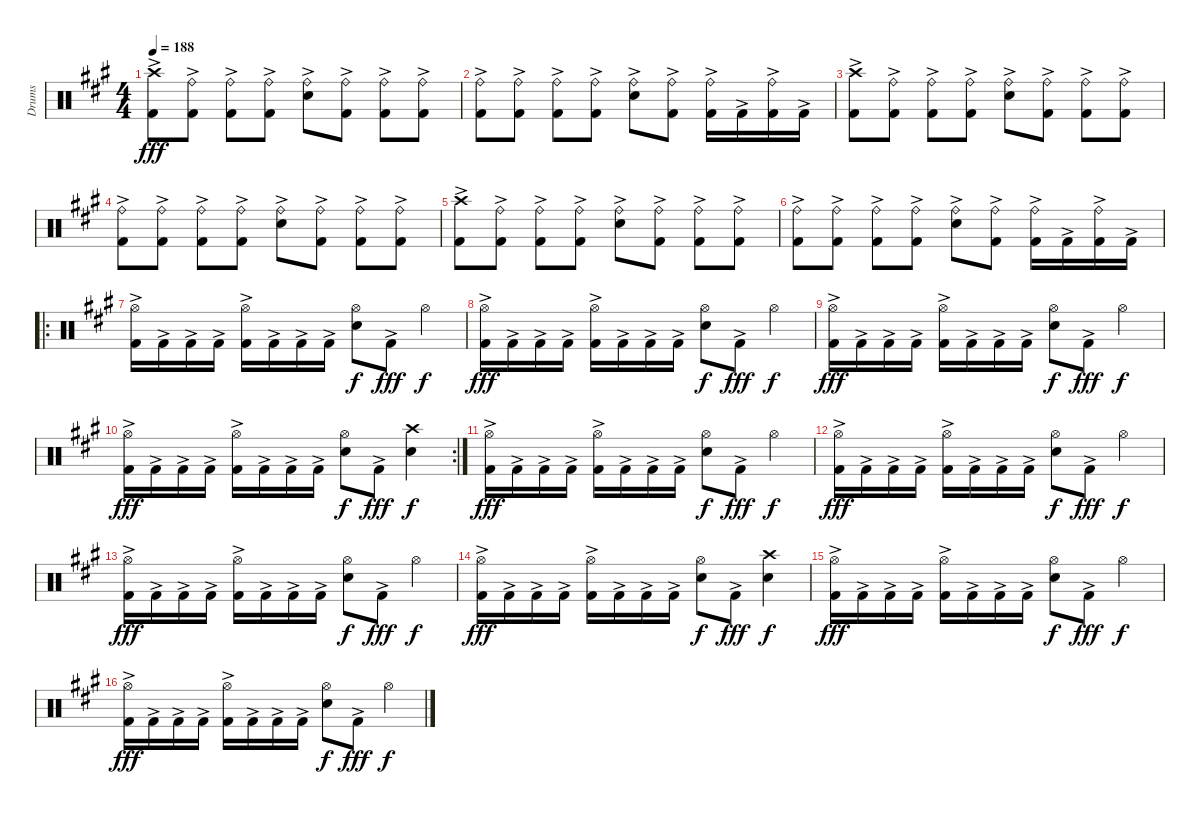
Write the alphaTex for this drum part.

\track ("Drums" "Drums") {instrument percussion}
\staff {score}
\articulation defaults
\ts (4 4)
\tempo 188
\clef neutral
\ks f#minor
("Crash high (hit)" "Kick (hit) 2"{ac}).8{dy fff} ("Ride (bell)"{ac} "Kick (hit) 2"{ac}).8 ("Ride (bell)"{ac} "Kick (hit) 2"{ac}).8 ("Ride (bell)"{ac} "Kick (hit) 2"{ac}).8 ("Ride (bell)"{ac} "Snare (hit) 2").8 ("Ride (bell)"{ac} "Kick (hit) 2"{ac}).8 ("Ride (bell)"{ac} "Kick (hit) 2"{ac}).8 ("Ride (bell)"{ac} "Kick (hit) 2"{ac}).8 |
("Ride (bell)"{ac} "Kick (hit) 2"{ac}).8 ("Ride (bell)"{ac} "Kick (hit) 2"{ac}).8 ("Ride (bell)"{ac} "Kick (hit) 2"{ac}).8 ("Ride (bell)"{ac} "Kick (hit) 2"{ac}).8 ("Ride (bell)"{ac} "Snare (hit) 2").8 ("Ride (bell)"{ac} "Kick (hit) 2"{ac}).8 ("Ride (bell)"{ac} "Kick (hit) 2"{ac}).16 "Kick (hit) 2"{ac}.16 ("Ride (bell)"{ac} "Kick (hit) 2"{ac}).16 "Kick (hit) 2"{ac}.16 |
("Crash high (hit)" "Kick (hit) 2"{ac}).8 ("Ride (bell)"{ac} "Kick (hit) 2"{ac}).8 ("Ride (bell)"{ac} "Kick (hit) 2"{ac}).8 ("Ride (bell)"{ac} "Kick (hit) 2"{ac}).8 ("Ride (bell)"{ac} "Snare (hit) 2").8 ("Ride (bell)"{ac} "Kick (hit) 2"{ac}).8 ("Ride (bell)"{ac} "Kick (hit) 2"{ac}).8 ("Ride (bell)"{ac} "Kick (hit) 2"{ac}).8 |
("Ride (bell)"{ac} "Kick (hit) 2"{ac}).8 ("Ride (bell)"{ac} "Kick (hit) 2"{ac}).8 ("Ride (bell)"{ac} "Kick (hit) 2"{ac}).8 ("Ride (bell)"{ac} "Kick (hit) 2"{ac}).8 ("Ride (bell)"{ac} "Snare (hit) 2").8 ("Ride (bell)"{ac} "Kick (hit) 2"{ac}).8 ("Ride (bell)"{ac} "Kick (hit) 2"{ac}).8 ("Ride (bell)"{ac} "Kick (hit) 2"{ac}).8 |
("Crash high (hit)" "Kick (hit) 2"{ac}).8 ("Ride (bell)"{ac} "Kick (hit) 2"{ac}).8 ("Ride (bell)"{ac} "Kick (hit) 2"{ac}).8 ("Ride (bell)"{ac} "Kick (hit) 2"{ac}).8 ("Ride (bell)"{ac} "Snare (hit) 2").8 ("Ride (bell)"{ac} "Kick (hit) 2"{ac}).8 ("Ride (bell)"{ac} "Kick (hit) 2"{ac}).8 ("Ride (bell)"{ac} "Kick (hit) 2"{ac}).8 |
("Ride (bell)"{ac} "Kick (hit) 2"{ac}).8 ("Ride (bell)"{ac} "Kick (hit) 2"{ac}).8 ("Ride (bell)"{ac} "Kick (hit) 2"{ac}).8 ("Ride (bell)"{ac} "Kick (hit) 2"{ac}).8 ("Ride (bell)"{ac} "Snare (hit) 2").8 ("Ride (bell)"{ac} "Kick (hit) 2"{ac}).8 ("Ride (bell)"{ac} "Kick (hit) 2"{ac}).16 "Kick (hit) 2"{ac}.16 ("Ride (bell)"{ac} "Kick (hit) 2"{ac}).16 "Kick (hit) 2"{ac}.16 |
\ro
("Hi-Hat (open)" "Kick (hit) 2"{ac}).16{volume 14} "Kick (hit) 2"{ac}.16 "Kick (hit) 2"{ac}.16 "Kick (hit) 2"{ac}.16 ("Hi-Hat (open)" "Kick (hit) 2"{ac}).16 "Kick (hit) 2"{ac}.16 "Kick (hit) 2"{ac}.16 "Kick (hit) 2"{ac}.16 ("Hi-Hat (open)" "Snare (hit) 2").8{dy f} "Kick (hit) 2"{ac}.8{dy fff} "Hi-Hat (open)".4{dy f} |
("Hi-Hat (open)" "Kick (hit) 2"{ac}).16{dy fff} "Kick (hit) 2"{ac}.16 "Kick (hit) 2"{ac}.16 "Kick (hit) 2"{ac}.16 ("Hi-Hat (open)" "Kick (hit) 2"{ac}).16 "Kick (hit) 2"{ac}.16 "Kick (hit) 2"{ac}.16 "Kick (hit) 2"{ac}.16 ("Hi-Hat (open)" "Snare (hit) 2").8{dy f} "Kick (hit) 2"{ac}.8{dy fff} "Hi-Hat (open)".4{dy f} |
("Hi-Hat (open)" "Kick (hit) 2"{ac}).16{dy fff} "Kick (hit) 2"{ac}.16 "Kick (hit) 2"{ac}.16 "Kick (hit) 2"{ac}.16 ("Hi-Hat (open)" "Kick (hit) 2"{ac}).16 "Kick (hit) 2"{ac}.16 "Kick (hit) 2"{ac}.16 "Kick (hit) 2"{ac}.16 ("Hi-Hat (open)" "Snare (hit) 2").8{dy f} "Kick (hit) 2"{ac}.8{dy fff} "Hi-Hat (open)".4{dy f} |
\rc 2
("Hi-Hat (open)" "Kick (hit) 2"{ac}).16{dy fff} "Kick (hit) 2"{ac}.16 "Kick (hit) 2"{ac}.16 "Kick (hit) 2"{ac}.16 ("Hi-Hat (open)" "Kick (hit) 2"{ac}).16 "Kick (hit) 2"{ac}.16 "Kick (hit) 2"{ac}.16 "Kick (hit) 2"{ac}.16 ("Hi-Hat (open)" "Snare (hit) 2").8{dy f} "Kick (hit) 2"{ac}.8{dy fff} ("Crash high (hit)" "Snare (hit) 2").4{dy f} |
("Hi-Hat (open)" "Kick (hit) 2"{ac}).16{dy fff} "Kick (hit) 2"{ac}.16 "Kick (hit) 2"{ac}.16 "Kick (hit) 2"{ac}.16 ("Hi-Hat (open)" "Kick (hit) 2"{ac}).16 "Kick (hit) 2"{ac}.16 "Kick (hit) 2"{ac}.16 "Kick (hit) 2"{ac}.16 ("Hi-Hat (open)" "Snare (hit) 2").8{dy f} "Kick (hit) 2"{ac}.8{dy fff} "Hi-Hat (open)".4{dy f} |
("Hi-Hat (open)" "Kick (hit) 2"{ac}).16{dy fff} "Kick (hit) 2"{ac}.16 "Kick (hit) 2"{ac}.16 "Kick (hit) 2"{ac}.16 ("Hi-Hat (open)" "Kick (hit) 2"{ac}).16 "Kick (hit) 2"{ac}.16 "Kick (hit) 2"{ac}.16 "Kick (hit) 2"{ac}.16 ("Hi-Hat (open)" "Snare (hit) 2").8{dy f} "Kick (hit) 2"{ac}.8{dy fff} "Hi-Hat (open)".4{dy f} |
("Hi-Hat (open)" "Kick (hit) 2"{ac}).16{dy fff} "Kick (hit) 2"{ac}.16 "Kick (hit) 2"{ac}.16 "Kick (hit) 2"{ac}.16 ("Hi-Hat (open)" "Kick (hit) 2"{ac}).16 "Kick (hit) 2"{ac}.16 "Kick (hit) 2"{ac}.16 "Kick (hit) 2"{ac}.16 ("Hi-Hat (open)" "Snare (hit) 2").8{dy f} "Kick (hit) 2"{ac}.8{dy fff} "Hi-Hat (open)".4{dy f} |
("Hi-Hat (open)" "Kick (hit) 2"{ac}).16{dy fff} "Kick (hit) 2"{ac}.16 "Kick (hit) 2"{ac}.16 "Kick (hit) 2"{ac}.16 ("Hi-Hat (open)" "Kick (hit) 2"{ac}).16 "Kick (hit) 2"{ac}.16 "Kick (hit) 2"{ac}.16 "Kick (hit) 2"{ac}.16 ("Hi-Hat (open)" "Snare (hit) 2").8{dy f} "Kick (hit) 2"{ac}.8{dy fff} ("Crash high (hit)" "Snare (hit) 2").4{dy f} |
("Hi-Hat (open)" "Kick (hit) 2"{ac}).16{dy fff} "Kick (hit) 2"{ac}.16 "Kick (hit) 2"{ac}.16 "Kick (hit) 2"{ac}.16 ("Hi-Hat (open)" "Kick (hit) 2"{ac}).16 "Kick (hit) 2"{ac}.16 "Kick (hit) 2"{ac}.16 "Kick (hit) 2"{ac}.16 ("Hi-Hat (open)" "Snare (hit) 2").8{dy f} "Kick (hit) 2"{ac}.8{dy fff} "Hi-Hat (open)".4{dy f} |
("Hi-Hat (open)" "Kick (hit) 2"{ac}).16{dy fff} "Kick (hit) 2"{ac}.16 "Kick (hit) 2"{ac}.16 "Kick (hit) 2"{ac}.16 ("Hi-Hat (open)" "Kick (hit) 2"{ac}).16 "Kick (hit) 2"{ac}.16 "Kick (hit) 2"{ac}.16 "Kick (hit) 2"{ac}.16 ("Hi-Hat (open)" "Snare (hit) 2").8{dy f} "Kick (hit) 2"{ac}.8{dy fff} "Hi-Hat (open)".4{dy f}
